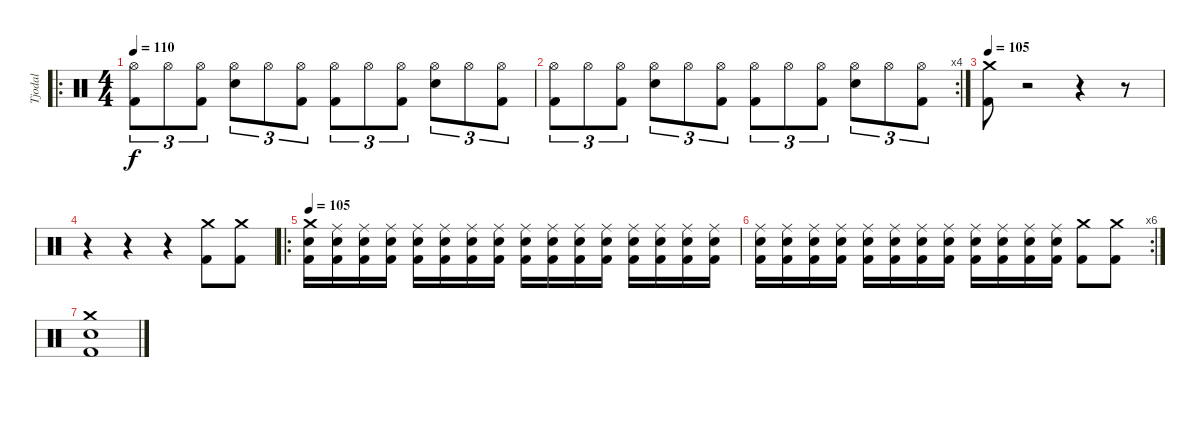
\track ("Tjodal" "Tjodal") {instrument percussion}
\staff {score}
\articulation defaults
\ro
\ts (4 4)
\tempo 110
\clef neutral
\ks c
("Hi-Hat (open)" "Kick (hit) 2").8{tu (3 2) dy f} "Hi-Hat (open)".8{tu (3 2)} ("Hi-Hat (open)" "Kick (hit) 2").8{tu (3 2)} ("Hi-Hat (open)" "Snare (hit) 2").8{tu (3 2)} "Hi-Hat (open)".8{tu (3 2)} ("Hi-Hat (open)" "Kick (hit) 2").8{tu (3 2)} ("Hi-Hat (open)" "Kick (hit) 2").8{tu (3 2)} "Hi-Hat (open)".8{tu (3 2)} ("Hi-Hat (open)" "Kick (hit) 2").8{tu (3 2)} ("Hi-Hat (open)" "Snare (hit) 2").8{tu (3 2)} "Hi-Hat (open)".8{tu (3 2)} ("Hi-Hat (open)" "Kick (hit) 2").8{tu (3 2)} |
\rc 4
("Hi-Hat (open)" "Kick (hit) 2").8{tu (3 2)} "Hi-Hat (open)".8{tu (3 2)} ("Hi-Hat (open)" "Kick (hit) 2").8{tu (3 2)} ("Hi-Hat (open)" "Snare (hit) 2").8{tu (3 2)} "Hi-Hat (open)".8{tu (3 2)} ("Hi-Hat (open)" "Kick (hit) 2").8{tu (3 2)} ("Hi-Hat (open)" "Kick (hit) 2").8{tu (3 2)} "Hi-Hat (open)".8{tu (3 2)} ("Hi-Hat (open)" "Kick (hit) 2").8{tu (3 2)} ("Hi-Hat (open)" "Snare (hit) 2").8{tu (3 2)} "Hi-Hat (open)".8{tu (3 2)} ("Hi-Hat (open)" "Kick (hit) 2").8{tu (3 2)} |
\tempo 105
("Kick (hit) 2" "Crash medium (hit)").8 r.2 r.4 r.8 |
r.4 r.4 r.4 ("Kick (hit) 2" "Crash medium (hit)").8 ("Kick (hit) 2" "Crash medium (hit)").8 |
\ro
\tempo 90
\tempo 105
("Crash medium (hit)" "Snare (hit) 2" "Kick (hit) 2").16 ("Ride (middle)" "Snare (hit) 2" "Kick (hit) 2").16 ("Ride (middle)" "Snare (hit) 2" "Kick (hit) 2").16 ("Ride (middle)" "Snare (hit) 2" "Kick (hit) 2").16 ("Ride (middle)" "Snare (hit) 2" "Kick (hit) 2").16 ("Ride (middle)" "Snare (hit) 2" "Kick (hit) 2").16 ("Ride (middle)" "Snare (hit) 2" "Kick (hit) 2").16 ("Ride (middle)" "Snare (hit) 2" "Kick (hit) 2").16 ("Ride (middle)" "Snare (hit) 2" "Kick (hit) 2").16 ("Ride (middle)" "Snare (hit) 2" "Kick (hit) 2").16 ("Ride (middle)" "Snare (hit) 2" "Kick (hit) 2").16 ("Ride (middle)" "Snare (hit) 2" "Kick (hit) 2").16 ("Ride (middle)" "Snare (hit) 2" "Kick (hit) 2").16 ("Ride (middle)" "Snare (hit) 2" "Kick (hit) 2").16 ("Ride (middle)" "Snare (hit) 2" "Kick (hit) 2").16 ("Ride (middle)" "Snare (hit) 2" "Kick (hit) 2").16 |
\rc 6
("Ride (middle)" "Snare (hit) 2" "Kick (hit) 2").16 ("Ride (middle)" "Snare (hit) 2" "Kick (hit) 2").16 ("Ride (middle)" "Snare (hit) 2" "Kick (hit) 2").16 ("Ride (middle)" "Snare (hit) 2" "Kick (hit) 2").16 ("Ride (middle)" "Snare (hit) 2" "Kick (hit) 2").16 ("Ride (middle)" "Snare (hit) 2" "Kick (hit) 2").16 ("Ride (middle)" "Snare (hit) 2" "Kick (hit) 2").16 ("Ride (middle)" "Snare (hit) 2" "Kick (hit) 2").16 ("Ride (middle)" "Snare (hit) 2" "Kick (hit) 2").16 ("Ride (middle)" "Snare (hit) 2" "Kick (hit) 2").16 ("Ride (middle)" "Snare (hit) 2" "Kick (hit) 2").16 ("Ride (middle)" "Snare (hit) 2" "Kick (hit) 2").16 ("Crash medium (hit)" "Kick (hit) 2").8 ("Crash medium (hit)" "Kick (hit) 2").8 |
("Kick (hit) 2" "Snare (hit) 2" "Crash medium (hit)").1
